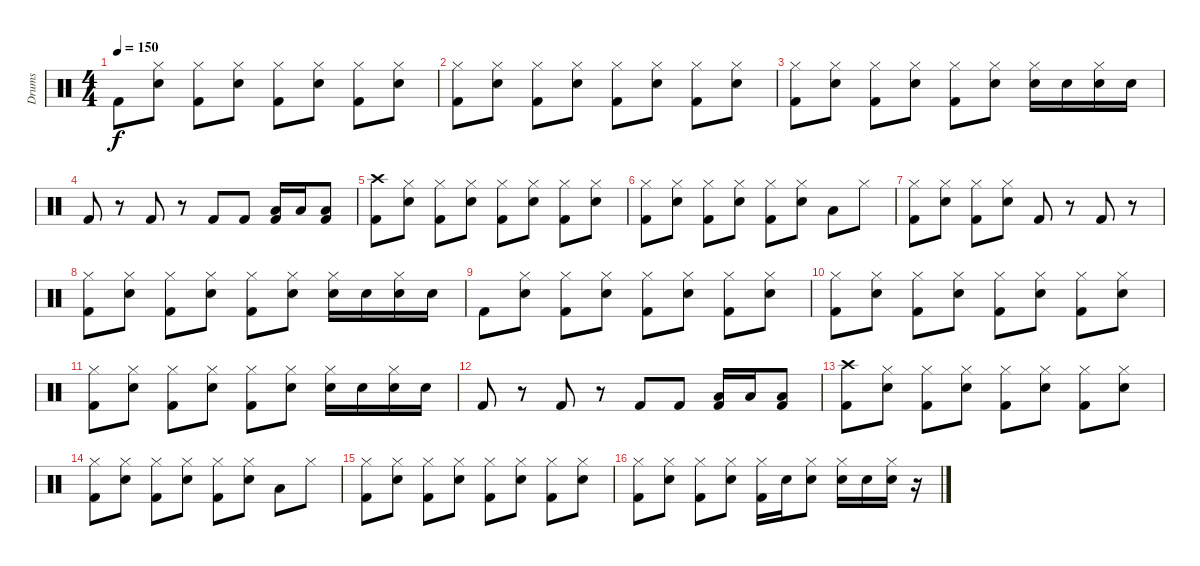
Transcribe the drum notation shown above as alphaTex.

\track ("Drums" "Drums") {instrument percussion}
\staff {score}
\articulation defaults
\ts (4 4)
\tempo 150
\clef neutral
\ks c "Kick (hit) 2".8{dy f}
("Hi-Hat (closed)" "Snare (hit) 2").8 ("Hi-Hat (closed)" "Kick (hit) 2").8 ("Hi-Hat (closed)" "Snare (hit) 2").8 ("Hi-Hat (closed)" "Kick (hit) 2").8 ("Hi-Hat (closed)" "Snare (hit) 2").8 ("Hi-Hat (closed)" "Kick (hit) 2").8 ("Hi-Hat (closed)" "Snare (hit) 2").8 |
("Hi-Hat (closed)" "Kick (hit) 2").8 ("Hi-Hat (closed)" "Snare (hit) 2").8 ("Hi-Hat (closed)" "Kick (hit) 2").8 ("Hi-Hat (closed)" "Snare (hit) 2").8 ("Hi-Hat (closed)" "Kick (hit) 2").8 ("Hi-Hat (closed)" "Snare (hit) 2").8 ("Hi-Hat (closed)" "Kick (hit) 2").8 ("Hi-Hat (closed)" "Snare (hit) 2").8 |
("Hi-Hat (closed)" "Kick (hit) 2").8 ("Hi-Hat (closed)" "Snare (hit) 2").8 ("Hi-Hat (closed)" "Kick (hit) 2").8 ("Hi-Hat (closed)" "Snare (hit) 2").8 ("Hi-Hat (closed)" "Kick (hit) 2").8 ("Hi-Hat (closed)" "Snare (hit) 2").8 ("Hi-Hat (closed)" "Snare (hit) 2").16 "Snare (hit) 2".16 ("Hi-Hat (closed)" "Snare (hit) 2").16 "Snare (hit) 2".16 |
"Kick (hit) 2".8 r.8 "Kick (hit) 2".8 r.8 "Kick (hit) 2".8 "Kick (hit) 2".8 ("Low Floor Tom (hit)" "Kick (hit) 2").16 "Low Floor Tom (hit)".16 ("Low Floor Tom (hit)" "Kick (hit) 2").8 |
("Crash high (hit)" "Kick (hit) 2").8 ("Hi-Hat (closed)" "Snare (hit) 2").8 ("Hi-Hat (closed)" "Kick (hit) 2").8 ("Hi-Hat (closed)" "Snare (hit) 2").8 ("Hi-Hat (closed)" "Kick (hit) 2").8 ("Hi-Hat (closed)" "Snare (hit) 2").8 ("Hi-Hat (closed)" "Kick (hit) 2").8 ("Hi-Hat (closed)" "Snare (hit) 2").8 |
("Hi-Hat (closed)" "Kick (hit) 2").8 ("Hi-Hat (closed)" "Snare (hit) 2").8 ("Hi-Hat (closed)" "Kick (hit) 2").8 ("Hi-Hat (closed)" "Snare (hit) 2").8 ("Hi-Hat (closed)" "Kick (hit) 2").8 ("Hi-Hat (closed)" "Snare (hit) 2").8 "Low Floor Tom (hit)".8 "Hi-Hat (closed)".8 |
("Hi-Hat (closed)" "Kick (hit) 2").8 ("Hi-Hat (closed)" "Snare (hit) 2").8 ("Hi-Hat (closed)" "Kick (hit) 2").8 ("Hi-Hat (closed)" "Snare (hit) 2").8 "Kick (hit) 2".8 r.8 "Kick (hit) 2".8 r.8 |
("Hi-Hat (closed)" "Kick (hit) 2").8 ("Hi-Hat (closed)" "Snare (hit) 2").8 ("Hi-Hat (closed)" "Kick (hit) 2").8 ("Hi-Hat (closed)" "Snare (hit) 2").8 ("Hi-Hat (closed)" "Kick (hit) 2").8 ("Hi-Hat (closed)" "Snare (hit) 2").8 ("Hi-Hat (closed)" "Snare (hit) 2").16 "Snare (hit) 2".16 ("Hi-Hat (closed)" "Snare (hit) 2").16 "Snare (hit) 2".16 |
"Kick (hit) 2".8 ("Hi-Hat (closed)" "Snare (hit) 2").8 ("Hi-Hat (closed)" "Kick (hit) 2").8 ("Hi-Hat (closed)" "Snare (hit) 2").8 ("Hi-Hat (closed)" "Kick (hit) 2").8 ("Hi-Hat (closed)" "Snare (hit) 2").8 ("Hi-Hat (closed)" "Kick (hit) 2").8 ("Hi-Hat (closed)" "Snare (hit) 2").8 |
("Hi-Hat (closed)" "Kick (hit) 2").8 ("Hi-Hat (closed)" "Snare (hit) 2").8 ("Hi-Hat (closed)" "Kick (hit) 2").8 ("Hi-Hat (closed)" "Snare (hit) 2").8 ("Hi-Hat (closed)" "Kick (hit) 2").8 ("Hi-Hat (closed)" "Snare (hit) 2").8 ("Hi-Hat (closed)" "Kick (hit) 2").8 ("Hi-Hat (closed)" "Snare (hit) 2").8 |
("Hi-Hat (closed)" "Kick (hit) 2").8 ("Hi-Hat (closed)" "Snare (hit) 2").8 ("Hi-Hat (closed)" "Kick (hit) 2").8 ("Hi-Hat (closed)" "Snare (hit) 2").8 ("Hi-Hat (closed)" "Kick (hit) 2").8 ("Hi-Hat (closed)" "Snare (hit) 2").8 ("Hi-Hat (closed)" "Snare (hit) 2").16 "Snare (hit) 2".16 ("Hi-Hat (closed)" "Snare (hit) 2").16 "Snare (hit) 2".16 |
"Kick (hit) 2".8 r.8 "Kick (hit) 2".8 r.8 "Kick (hit) 2".8 "Kick (hit) 2".8 ("Low Floor Tom (hit)" "Kick (hit) 2").16 "Low Floor Tom (hit)".16 ("Low Floor Tom (hit)" "Kick (hit) 2").8 |
("Crash high (hit)" "Kick (hit) 2").8 ("Hi-Hat (closed)" "Snare (hit) 2").8 ("Hi-Hat (closed)" "Kick (hit) 2").8 ("Hi-Hat (closed)" "Snare (hit) 2").8 ("Hi-Hat (closed)" "Kick (hit) 2").8 ("Hi-Hat (closed)" "Snare (hit) 2").8 ("Hi-Hat (closed)" "Kick (hit) 2").8 ("Hi-Hat (closed)" "Snare (hit) 2").8 |
("Hi-Hat (closed)" "Kick (hit) 2").8 ("Hi-Hat (closed)" "Snare (hit) 2").8 ("Hi-Hat (closed)" "Kick (hit) 2").8 ("Hi-Hat (closed)" "Snare (hit) 2").8 ("Hi-Hat (closed)" "Kick (hit) 2").8 ("Hi-Hat (closed)" "Snare (hit) 2").8 "Low Floor Tom (hit)".8 "Hi-Hat (closed)".8 |
("Hi-Hat (closed)" "Kick (hit) 2").8 ("Hi-Hat (closed)" "Snare (hit) 2").8 ("Hi-Hat (closed)" "Kick (hit) 2").8 ("Hi-Hat (closed)" "Snare (hit) 2").8 ("Hi-Hat (closed)" "Kick (hit) 2").8 ("Hi-Hat (closed)" "Snare (hit) 2").8 ("Hi-Hat (closed)" "Kick (hit) 2").8 ("Hi-Hat (closed)" "Snare (hit) 2").8 |
("Hi-Hat (closed)" "Kick (hit) 2").8 ("Hi-Hat (closed)" "Snare (hit) 2").8 ("Hi-Hat (closed)" "Kick (hit) 2").8 ("Hi-Hat (closed)" "Snare (hit) 2").8 ("Hi-Hat (closed)" "Kick (hit) 2").16 "Snare (hit) 2".16 ("Hi-Hat (closed)" "Snare (hit) 2").8 ("Hi-Hat (closed)" "Snare (hit) 2").16 "Snare (hit) 2".16 ("Hi-Hat (closed)" "Snare (hit) 2").16 r.16
